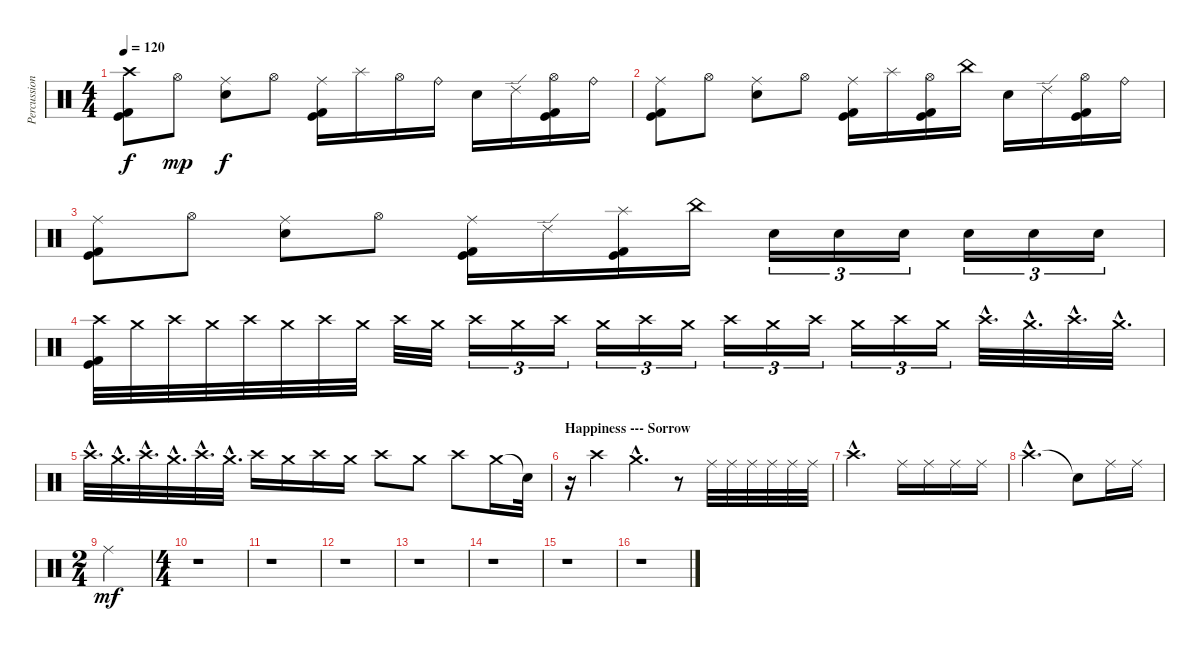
\track ("Percussion" "Percussion") {instrument percussion}
\staff {score}
\articulation defaults
\ts (4 4)
\tempo 120
\clef neutral
\ks c
("Crash high (hit)" "Kick (hit)" "Kick (hit) 2").8{dy f} "Hi-Hat (open)".8{dy mp} ("Ride (middle)" "Snare (hit) 2").8{dy f} "Hi-Hat (open)".8 ("Ride (middle)" "Kick (hit)" "Kick (hit) 2").16 "Splash (hit)".16 "Hi-Hat (open)".16 "Ride (bell)".16 "Snare (hit) 2".16 "Ride (edge) 2".16 ("Hi-Hat (open)" "Kick (hit)" "Kick (hit) 2").16 "Ride (bell)".16 |
("Ride (middle)" "Kick (hit)" "Kick (hit) 2").8 "Hi-Hat (open)".8 ("Ride (middle)" "Snare (hit) 2").8 "Hi-Hat (open)".8 ("Ride (middle)" "Kick (hit)" "Kick (hit) 2").16 "Splash (hit)".16 ("Hi-Hat (open)" "Kick (hit)" "Kick (hit) 2").16 "China (hit)".16 "Snare (hit) 2".16 "Ride (edge) 2".16 ("Hi-Hat (open)" "Kick (hit)" "Kick (hit) 2").16 "Ride (bell)".16 |
("Ride (middle)" "Kick (hit)" "Kick (hit) 2").8 "Hi-Hat (open)".8 ("Ride (middle)" "Snare (hit) 2").8 "Hi-Hat (open)".8 ("Ride (middle)" "Kick (hit)" "Kick (hit) 2").16 "Ride (edge) 2".16 ("Splash (hit)" "Kick (hit)" "Kick (hit) 2").16 "China (hit)".16 "Snare (hit) 2".16{tu (3 2)} "Snare (hit) 2".16{tu (3 2)} "Snare (hit) 2".16{tu (3 2)} "Snare (hit) 2".16{tu (3 2)} "Snare (hit) 2".16{tu (3 2)} "Snare (hit) 2".16{tu (3 2)} |
("Crash high (hit)" "Kick (hit)" "Kick (hit) 2").32{volume 7} "Crash medium (hit)".32 "Crash high (hit)".32 "Crash medium (hit)".32 "Crash high (hit)".32 "Crash medium (hit)".32 "Crash high (hit)".32 "Crash medium (hit)".32 "Crash high (hit)".32 "Crash medium (hit)".32 "Crash high (hit)".16{tu (3 2)} "Crash medium (hit)".16{tu (3 2)} "Crash high (hit)".16{tu (3 2)} "Crash medium (hit)".16{tu (3 2)} "Crash high (hit)".16{tu (3 2)} "Crash medium (hit)".16{tu (3 2)} "Crash high (hit)".16{tu (3 2)} "Crash medium (hit)".16{tu (3 2)} "Crash high (hit)".16{tu (3 2)} "Crash medium (hit)".16{tu (3 2)} "Crash high (hit)".16{tu (3 2)} "Crash medium (hit)".16{tu (3 2)} "Crash high (hit)"{hac}.32{d} "Crash medium (hit)"{hac}.32{d} "Crash high (hit)"{hac}.32{d} "Crash medium (hit)"{hac}.32{d} |
"Crash high (hit)"{hac}.32{d} "Crash medium (hit)"{hac}.32{d} "Crash high (hit)"{hac}.32{d} "Crash medium (hit)"{hac}.32{d} "Crash high (hit)"{hac}.32{d} "Crash medium (hit)"{hac}.32{d} "Crash high (hit)".16 "Crash medium (hit)".16 "Crash high (hit)".16 "Crash medium (hit)".16 "Crash high (hit)".8 "Crash medium (hit)".8 "Crash high (hit)".8 "Crash medium (hit)".16 "Snare (hit)"{t}.32 |
\section ("" "Happiness --- Sorrow")
r.16 "Crash high (hit)".4 "Crash medium (hit)"{hac}.4{d} r.8 "Ride (middle)".32 "Ride (middle)".32 "Ride (middle)".32 "Ride (middle)".32 "Ride (middle)".32 "Ride (middle)".32 |
"Crash high (hit)"{hac}.2{d} "Ride (middle)".16 "Ride (middle)".16 "Ride (middle)".16 "Ride (middle)".16 |
"Crash high (hit)"{hac}.2{d} "Snare (hit)"{t}.8 "Ride (middle)".16 "Ride (middle)".16 |
\ts (2 4)
"Ride (middle)".2{dy mf} |
\ts (4 4)
r.1 |
r.1 |
r.1 |
r.1 |
r.1 |
r.1 |
r.1
